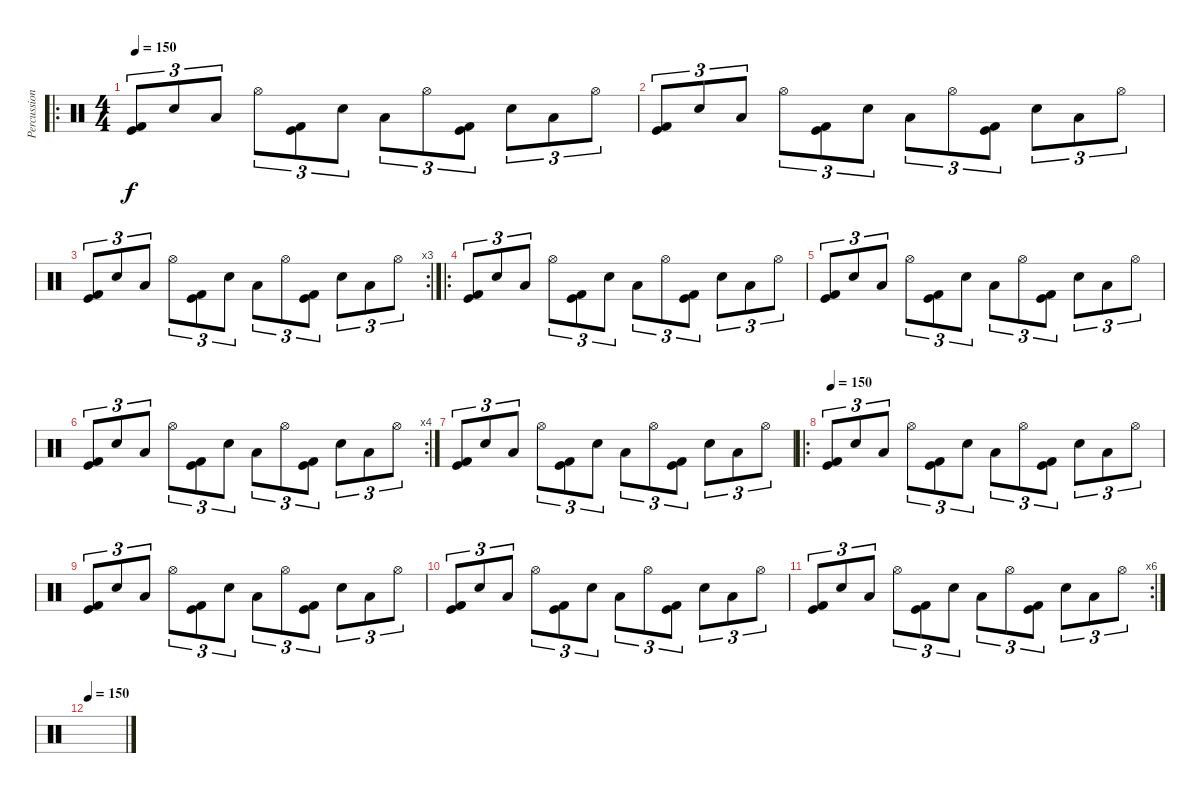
\track ("Percussion" "Percussion") {instrument percussion}
\staff {score}
\articulation defaults
\ro
\ts (4 4)
\tempo 150
\clef neutral
\ks c
("Kick (hit)" "Kick (hit) 2").8{tu (3 2) dy f} "Snare (hit) 2".8{tu (3 2)} "Low Tom (hit)".8{tu (3 2)} "Hi-Hat (open)".8{tu (3 2)} ("Kick (hit)" "Kick (hit) 2").8{tu (3 2)} "Snare (hit) 2".8{tu (3 2)} "Low Tom (hit)".8{tu (3 2)} "Hi-Hat (open)".8{tu (3 2)} ("Kick (hit)" "Kick (hit) 2").8{tu (3 2)} "Snare (hit) 2".8{tu (3 2)} "Low Tom (hit)".8{tu (3 2)} "Hi-Hat (open)".8{tu (3 2)} |
("Kick (hit)" "Kick (hit) 2").8{tu (3 2)} "Snare (hit) 2".8{tu (3 2)} "Low Tom (hit)".8{tu (3 2)} "Hi-Hat (open)".8{tu (3 2)} ("Kick (hit)" "Kick (hit) 2").8{tu (3 2)} "Snare (hit) 2".8{tu (3 2)} "Low Tom (hit)".8{tu (3 2)} "Hi-Hat (open)".8{tu (3 2)} ("Kick (hit)" "Kick (hit) 2").8{tu (3 2)} "Snare (hit) 2".8{tu (3 2)} "Low Tom (hit)".8{tu (3 2)} "Hi-Hat (open)".8{tu (3 2)} |
\rc 3
("Kick (hit)" "Kick (hit) 2").8{tu (3 2)} "Snare (hit) 2".8{tu (3 2)} "Low Tom (hit)".8{tu (3 2)} "Hi-Hat (open)".8{tu (3 2)} ("Kick (hit)" "Kick (hit) 2").8{tu (3 2)} "Snare (hit) 2".8{tu (3 2)} "Low Tom (hit)".8{tu (3 2)} "Hi-Hat (open)".8{tu (3 2)} ("Kick (hit)" "Kick (hit) 2").8{tu (3 2)} "Snare (hit) 2".8{tu (3 2)} "Low Tom (hit)".8{tu (3 2)} "Hi-Hat (open)".8{tu (3 2)} |
\ro
("Kick (hit)" "Kick (hit) 2").8{tu (3 2)} "Snare (hit) 2".8{tu (3 2)} "Low Tom (hit)".8{tu (3 2)} "Hi-Hat (open)".8{tu (3 2)} ("Kick (hit)" "Kick (hit) 2").8{tu (3 2)} "Snare (hit) 2".8{tu (3 2)} "Low Tom (hit)".8{tu (3 2)} "Hi-Hat (open)".8{tu (3 2)} ("Kick (hit)" "Kick (hit) 2").8{tu (3 2)} "Snare (hit) 2".8{tu (3 2)} "Low Tom (hit)".8{tu (3 2)} "Hi-Hat (open)".8{tu (3 2)} |
("Kick (hit)" "Kick (hit) 2").8{tu (3 2)} "Snare (hit) 2".8{tu (3 2)} "Low Tom (hit)".8{tu (3 2)} "Hi-Hat (open)".8{tu (3 2)} ("Kick (hit)" "Kick (hit) 2").8{tu (3 2)} "Snare (hit) 2".8{tu (3 2)} "Low Tom (hit)".8{tu (3 2)} "Hi-Hat (open)".8{tu (3 2)} ("Kick (hit)" "Kick (hit) 2").8{tu (3 2)} "Snare (hit) 2".8{tu (3 2)} "Low Tom (hit)".8{tu (3 2)} "Hi-Hat (open)".8{tu (3 2)} |
\rc 4
("Kick (hit)" "Kick (hit) 2").8{tu (3 2)} "Snare (hit) 2".8{tu (3 2)} "Low Tom (hit)".8{tu (3 2)} "Hi-Hat (open)".8{tu (3 2)} ("Kick (hit)" "Kick (hit) 2").8{tu (3 2)} "Snare (hit) 2".8{tu (3 2)} "Low Tom (hit)".8{tu (3 2)} "Hi-Hat (open)".8{tu (3 2)} ("Kick (hit)" "Kick (hit) 2").8{tu (3 2)} "Snare (hit) 2".8{tu (3 2)} "Low Tom (hit)".8{tu (3 2)} "Hi-Hat (open)".8{tu (3 2)} |
("Kick (hit)" "Kick (hit) 2").8{tu (3 2)} "Snare (hit) 2".8{tu (3 2)} "Low Tom (hit)".8{tu (3 2)} "Hi-Hat (open)".8{tu (3 2)} ("Kick (hit)" "Kick (hit) 2").8{tu (3 2)} "Snare (hit) 2".8{tu (3 2)} "Low Tom (hit)".8{tu (3 2)} "Hi-Hat (open)".8{tu (3 2)} ("Kick (hit)" "Kick (hit) 2").8{tu (3 2)} "Snare (hit) 2".8{tu (3 2)} "Low Tom (hit)".8{tu (3 2)} "Hi-Hat (open)".8{tu (3 2)} |
\ro
\tempo 150
("Kick (hit)" "Kick (hit) 2").8{tu (3 2)} "Snare (hit) 2".8{tu (3 2)} "Low Tom (hit)".8{tu (3 2)} "Hi-Hat (open)".8{tu (3 2)} ("Kick (hit)" "Kick (hit) 2").8{tu (3 2)} "Snare (hit) 2".8{tu (3 2)} "Low Tom (hit)".8{tu (3 2)} "Hi-Hat (open)".8{tu (3 2)} ("Kick (hit)" "Kick (hit) 2").8{tu (3 2)} "Snare (hit) 2".8{tu (3 2)} "Low Tom (hit)".8{tu (3 2)} "Hi-Hat (open)".8{tu (3 2)} |
("Kick (hit)" "Kick (hit) 2").8{tu (3 2)} "Snare (hit) 2".8{tu (3 2)} "Low Tom (hit)".8{tu (3 2)} "Hi-Hat (open)".8{tu (3 2)} ("Kick (hit)" "Kick (hit) 2").8{tu (3 2)} "Snare (hit) 2".8{tu (3 2)} "Low Tom (hit)".8{tu (3 2)} "Hi-Hat (open)".8{tu (3 2)} ("Kick (hit)" "Kick (hit) 2").8{tu (3 2)} "Snare (hit) 2".8{tu (3 2)} "Low Tom (hit)".8{tu (3 2)} "Hi-Hat (open)".8{tu (3 2)} |
("Kick (hit)" "Kick (hit) 2").8{tu (3 2)} "Snare (hit) 2".8{tu (3 2)} "Low Tom (hit)".8{tu (3 2)} "Hi-Hat (open)".8{tu (3 2)} ("Kick (hit)" "Kick (hit) 2").8{tu (3 2)} "Snare (hit) 2".8{tu (3 2)} "Low Tom (hit)".8{tu (3 2)} "Hi-Hat (open)".8{tu (3 2)} ("Kick (hit)" "Kick (hit) 2").8{tu (3 2)} "Snare (hit) 2".8{tu (3 2)} "Low Tom (hit)".8{tu (3 2)} "Hi-Hat (open)".8{tu (3 2)} |
\rc 6
("Kick (hit)" "Kick (hit) 2").8{tu (3 2)} "Snare (hit) 2".8{tu (3 2)} "Low Tom (hit)".8{tu (3 2)} "Hi-Hat (open)".8{tu (3 2)} ("Kick (hit)" "Kick (hit) 2").8{tu (3 2)} "Snare (hit) 2".8{tu (3 2)} "Low Tom (hit)".8{tu (3 2)} "Hi-Hat (open)".8{tu (3 2)} ("Kick (hit)" "Kick (hit) 2").8{tu (3 2)} "Snare (hit) 2".8{tu (3 2)} "Low Tom (hit)".8{tu (3 2)} "Hi-Hat (open)".8{tu (3 2)} |
\tempo 150
